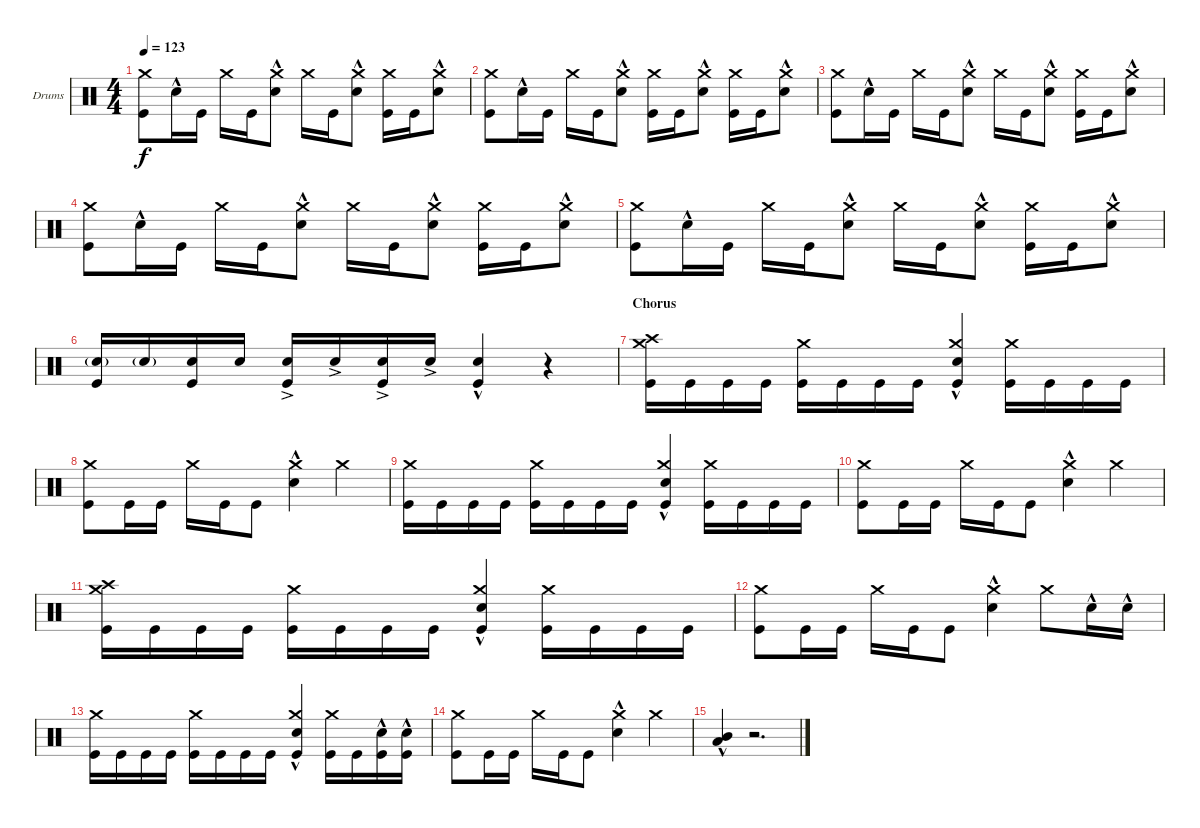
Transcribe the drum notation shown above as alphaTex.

\bracketExtendMode groupsimilarinstruments
\firstSystemTrackNameOrientation horizontal
\otherSystemsTrackNameOrientation horizontal
\track ("Drumkit" "Drums") {instrument percussion}
\staff {score}
\articulation defaults
\ts (4 4)
\tempo 123
\clef neutral
\ks aminor
("Kick (hit)" "Crash medium (hit)").8{dy f} "Snare (hit) 2"{hac}.16 "Kick (hit)".16 "Crash medium (hit)".16 "Kick (hit)".16 ("Snare (hit) 2"{hac} "Crash medium (hit)").8 "Crash medium (hit)".16 "Kick (hit)".16 ("Snare (hit) 2"{hac} "Crash medium (hit)").8 ("Crash medium (hit)" "Kick (hit)").16 "Kick (hit)".16 ("Snare (hit) 2"{hac} "Crash medium (hit)").8 |
("Kick (hit)" "Crash medium (hit)").8 "Snare (hit) 2"{hac}.16 "Kick (hit)".16 "Crash medium (hit)".16 "Kick (hit)".16 ("Snare (hit) 2"{hac} "Crash medium (hit)").8 ("Crash medium (hit)" "Kick (hit)").16 "Kick (hit)".16 ("Snare (hit) 2"{hac} "Crash medium (hit)").8 ("Crash medium (hit)" "Kick (hit)").16 "Kick (hit)".16 ("Snare (hit) 2"{hac} "Crash medium (hit)").8 |
("Kick (hit)" "Crash medium (hit)").8 "Snare (hit) 2"{hac}.16 "Kick (hit)".16 "Crash medium (hit)".16 "Kick (hit)".16 ("Snare (hit) 2"{hac} "Crash medium (hit)").8 "Crash medium (hit)".16 "Kick (hit)".16 ("Snare (hit) 2"{hac} "Crash medium (hit)").8 ("Crash medium (hit)" "Kick (hit)").16 "Kick (hit)".16 ("Snare (hit) 2"{hac} "Crash medium (hit)").8 |
("Kick (hit)" "Crash medium (hit)").8 "Snare (hit) 2"{hac}.16 "Kick (hit)".16 "Crash medium (hit)".16 "Kick (hit)".16 ("Snare (hit) 2"{hac} "Crash medium (hit)").8 "Crash medium (hit)".16 "Kick (hit)".16 ("Snare (hit) 2"{hac} "Crash medium (hit)").8 ("Crash medium (hit)" "Kick (hit)").16 "Kick (hit)".16 ("Snare (hit) 2"{hac} "Crash medium (hit)").8 |
("Kick (hit)" "Crash medium (hit)").8 "Snare (hit) 2"{hac}.16 "Kick (hit)".16 "Crash medium (hit)".16 "Kick (hit)".16 ("Snare (hit) 2"{hac} "Crash medium (hit)").8 "Crash medium (hit)".16 "Kick (hit)".16 ("Snare (hit) 2"{hac} "Crash medium (hit)").8 ("Crash medium (hit)" "Kick (hit)").16 "Kick (hit)".16 ("Snare (hit) 2"{hac} "Crash medium (hit)").8 |
("Snare (hit) 2"{g} "Kick (hit)").16 "Snare (hit) 2"{g}.16 ("Snare (hit) 2" "Kick (hit)").16 "Snare (hit) 2".16 ("Snare (hit) 2"{ac} "Kick (hit)").16 "Snare (hit) 2"{ac}.16 ("Snare (hit) 2"{ac} "Kick (hit)").16 "Snare (hit) 2"{ac}.16 ("Snare (hit) 2"{hac} "Kick (hit)").4 r.4 |
\section ("" "Chorus")
("Kick (hit)" "Crash medium (hit)" "Crash high (hit)").16 "Kick (hit)".16 "Kick (hit)".16 "Kick (hit)".16 ("Kick (hit)" "Crash medium (hit)").16 "Kick (hit)".16 "Kick (hit)".16 "Kick (hit)".16 ("Kick (hit)" "Crash medium (hit)" "Snare (hit) 2"{hac}).4 ("Kick (hit)" "Crash medium (hit)").16 "Kick (hit)".16 "Kick (hit)".16 "Kick (hit)".16 |
("Kick (hit)" "Crash medium (hit)").8 "Kick (hit)".16 "Kick (hit)".16 "Crash medium (hit)".16 "Kick (hit)".16 "Kick (hit)".8 ("Crash medium (hit)" "Snare (hit) 2"{hac}).4 "Crash medium (hit)".4 |
("Kick (hit)" "Crash medium (hit)").16 "Kick (hit)".16 "Kick (hit)".16 "Kick (hit)".16 ("Kick (hit)" "Crash medium (hit)").16 "Kick (hit)".16 "Kick (hit)".16 "Kick (hit)".16 ("Kick (hit)" "Crash medium (hit)" "Snare (hit) 2"{hac}).4 ("Kick (hit)" "Crash medium (hit)").16 "Kick (hit)".16 "Kick (hit)".16 "Kick (hit)".16 |
("Kick (hit)" "Crash medium (hit)").8 "Kick (hit)".16 "Kick (hit)".16 "Crash medium (hit)".16 "Kick (hit)".16 "Kick (hit)".8 ("Crash medium (hit)" "Snare (hit) 2"{hac}).4 "Crash medium (hit)".4 |
("Kick (hit)" "Crash medium (hit)" "Crash high (hit)").16 "Kick (hit)".16 "Kick (hit)".16 "Kick (hit)".16 ("Kick (hit)" "Crash medium (hit)").16 "Kick (hit)".16 "Kick (hit)".16 "Kick (hit)".16 ("Kick (hit)" "Crash medium (hit)" "Snare (hit) 2"{hac}).4 ("Kick (hit)" "Crash medium (hit)").16 "Kick (hit)".16 "Kick (hit)".16 "Kick (hit)".16 |
("Kick (hit)" "Crash medium (hit)").8 "Kick (hit)".16 "Kick (hit)".16 "Crash medium (hit)".16 "Kick (hit)".16 "Kick (hit)".8 ("Crash medium (hit)" "Snare (hit) 2"{hac}).4 "Crash medium (hit)".8 "Snare (hit) 2"{hac}.16 "Snare (hit) 2"{hac}.16 |
("Kick (hit)" "Crash medium (hit)").16 "Kick (hit)".16 "Kick (hit)".16 "Kick (hit)".16 ("Kick (hit)" "Crash medium (hit)").16 "Kick (hit)".16 "Kick (hit)".16 "Kick (hit)".16 ("Kick (hit)" "Crash medium (hit)" "Snare (hit) 2"{hac}).4 ("Kick (hit)" "Crash medium (hit)").16 "Kick (hit)".16 ("Kick (hit)" "Snare (hit) 2"{hac}).16 ("Kick (hit)" "Snare (hit) 2"{hac}).16 |
("Kick (hit)" "Crash medium (hit)").8 "Kick (hit)".16 "Kick (hit)".16 "Crash medium (hit)".16 "Kick (hit)".16 "Kick (hit)".8 ("Crash medium (hit)" "Snare (hit) 2"{hac}).4 "Crash medium (hit)".4 |
("Low Tom (hit)"{hac} "Mid Tom (hit)"{hac}).4 r.2{d}
